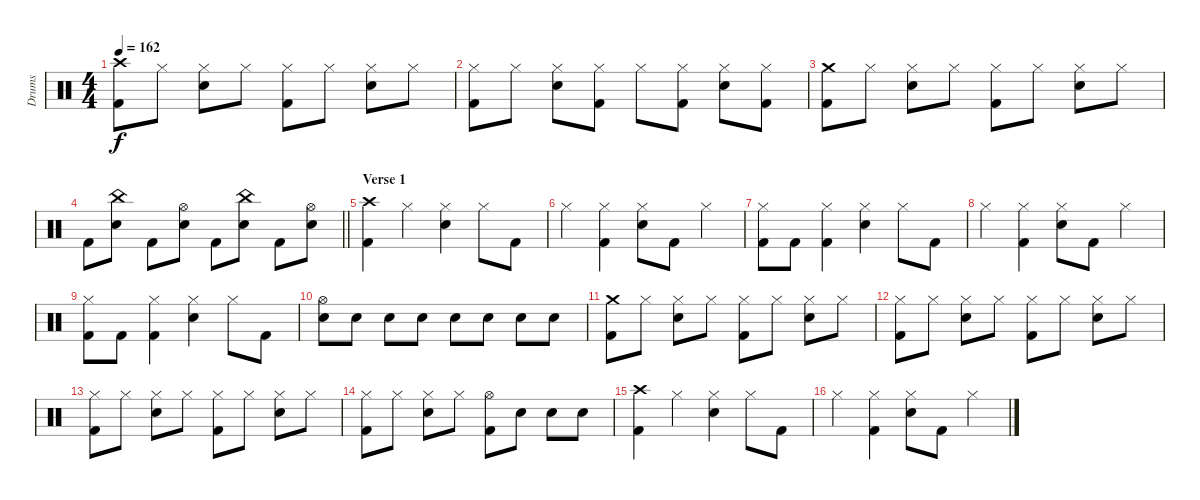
\track ("Drums" "Drums") {instrument percussion}
\staff {score}
\articulation defaults
\ts (4 4)
\tempo 162
\clef neutral
\ks c
("Crash high (hit)" "Kick (hit) 2").8{dy f} "Hi-Hat (closed)".8 ("Hi-Hat (closed)" "Electric Snare (hit)").8 "Hi-Hat (closed)".8 ("Hi-Hat (closed)" "Kick (hit) 2").8 "Hi-Hat (closed)".8 ("Hi-Hat (closed)" "Electric Snare (hit)").8 "Hi-Hat (closed)".8 |
("Hi-Hat (closed)" "Kick (hit) 2").8 "Hi-Hat (closed)".8 ("Hi-Hat (closed)" "Electric Snare (hit)").8 ("Hi-Hat (closed)" "Kick (hit) 2").8 "Hi-Hat (closed)".8 ("Hi-Hat (closed)" "Kick (hit) 2").8 ("Hi-Hat (closed)" "Electric Snare (hit)").8 ("Hi-Hat (closed)" "Kick (hit) 2").8 |
("Crash medium (hit)" "Kick (hit) 2").8 "Hi-Hat (closed)".8 ("Hi-Hat (closed)" "Electric Snare (hit)").8 "Hi-Hat (closed)".8 ("Hi-Hat (closed)" "Kick (hit) 2").8 "Hi-Hat (closed)".8 ("Hi-Hat (closed)" "Electric Snare (hit)").8 "Hi-Hat (closed)".8 |
\barLineRight lightlight "Kick (hit) 2".8
("China (hit)" "Electric Snare (hit)").8 "Kick (hit) 2".8 ("Hi-Hat (open)" "Electric Snare (hit)").8 "Kick (hit) 2".8 ("China (hit)" "Electric Snare (hit)").8 "Kick (hit) 2".8 ("Hi-Hat (open)" "Electric Snare (hit)").8 |
\section ("" "Verse 1")
("Crash high (hit)" "Kick (hit) 2").4 "Hi-Hat (closed)".4 ("Hi-Hat (closed)" "Electric Snare (hit)").4 "Hi-Hat (closed)".8 "Kick (hit) 2".8 |
"Hi-Hat (closed)".4 ("Hi-Hat (closed)" "Kick (hit) 2").4 ("Hi-Hat (closed)" "Electric Snare (hit)").8 "Kick (hit) 2".8 "Hi-Hat (closed)".4 |
("Hi-Hat (closed)" "Kick (hit) 2").8 "Kick (hit) 2".8 ("Hi-Hat (closed)" "Kick (hit) 2").4 ("Hi-Hat (closed)" "Electric Snare (hit)").4 "Hi-Hat (closed)".8 "Kick (hit) 2".8 |
"Hi-Hat (closed)".4 ("Hi-Hat (closed)" "Kick (hit) 2").4 ("Hi-Hat (closed)" "Electric Snare (hit)").8 "Kick (hit) 2".8 "Hi-Hat (closed)".4 |
("Hi-Hat (closed)" "Kick (hit) 2").8 "Kick (hit) 2".8 ("Hi-Hat (closed)" "Kick (hit) 2").4 ("Hi-Hat (closed)" "Electric Snare (hit)").4 "Hi-Hat (closed)".8 "Kick (hit) 2".8 |
("Hi-Hat (open)" "Electric Snare (hit)").8 "Electric Snare (hit)".8 "Electric Snare (hit)".8 "Electric Snare (hit)".8 "Electric Snare (hit)".8 "Electric Snare (hit)".8 "Electric Snare (hit)".8 "Electric Snare (hit)".8 |
("Crash medium (hit)" "Kick (hit) 2").8 "Hi-Hat (closed)".8 ("Hi-Hat (closed)" "Electric Snare (hit)").8 "Hi-Hat (closed)".8 ("Hi-Hat (closed)" "Kick (hit) 2").8 "Hi-Hat (closed)".8 ("Hi-Hat (closed)" "Electric Snare (hit)").8 "Hi-Hat (closed)".8 |
("Hi-Hat (closed)" "Kick (hit) 2").8 "Hi-Hat (closed)".8 ("Hi-Hat (closed)" "Electric Snare (hit)").8 "Hi-Hat (closed)".8 ("Hi-Hat (closed)" "Kick (hit) 2").8 "Hi-Hat (closed)".8 ("Hi-Hat (closed)" "Electric Snare (hit)").8 "Hi-Hat (closed)".8 |
("Hi-Hat (closed)" "Kick (hit) 2").8 "Hi-Hat (closed)".8 ("Hi-Hat (closed)" "Electric Snare (hit)").8 "Hi-Hat (closed)".8 ("Hi-Hat (closed)" "Kick (hit) 2").8 "Hi-Hat (closed)".8 ("Hi-Hat (closed)" "Electric Snare (hit)").8 "Hi-Hat (closed)".8 |
("Hi-Hat (closed)" "Kick (hit) 2").8 "Hi-Hat (closed)".8 ("Hi-Hat (closed)" "Electric Snare (hit)").8 "Hi-Hat (closed)".8 ("Hi-Hat (open)" "Kick (hit) 2").8 "Electric Snare (hit)".8 "Electric Snare (hit)".8 "Electric Snare (hit)".8 |
("Crash high (hit)" "Kick (hit) 2").4 "Hi-Hat (closed)".4 ("Hi-Hat (closed)" "Electric Snare (hit)").4 "Hi-Hat (closed)".8 "Kick (hit) 2".8 |
"Hi-Hat (closed)".4 ("Hi-Hat (closed)" "Kick (hit) 2").4 ("Hi-Hat (closed)" "Electric Snare (hit)").8 "Kick (hit) 2".8 "Hi-Hat (closed)".4
